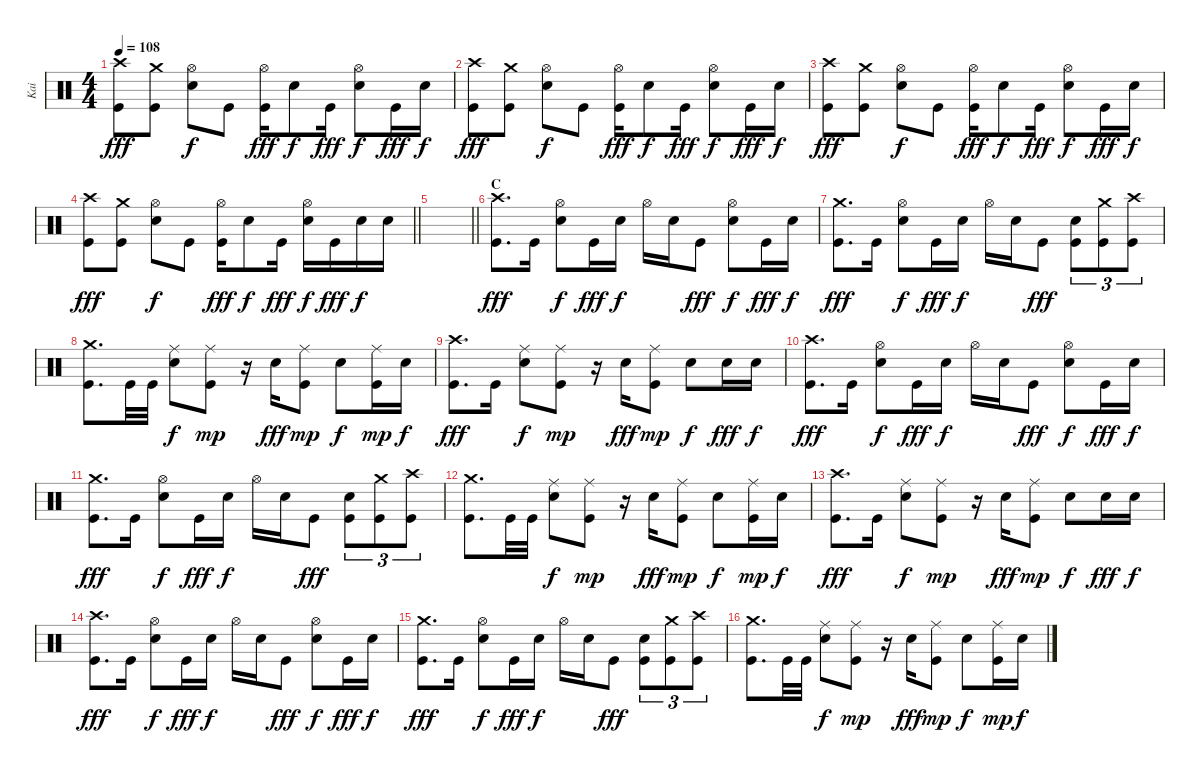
\track ("Kai" "Kai") {instrument percussion}
\staff {score}
\articulation defaults
\ts (4 4)
\tempo 108
\clef neutral
\ks c
("Kick (hit)" "Crash high (hit)").8{dy fff} ("Kick (hit)" "Crash medium (hit)").8 ("Snare (hit) 2" "Hi-Hat (open)").8{dy f} "Kick (hit)".8 ("Kick (hit)" "Hi-Hat (open)").16{dy fff} "Snare (hit) 2".8{dy f} "Kick (hit)".16{dy fff} ("Snare (hit) 2" "Hi-Hat (open)").8{dy f} "Kick (hit)".16{dy fff} "Snare (hit) 2".16{dy f} |
("Kick (hit)" "Crash high (hit)").8{dy fff} ("Kick (hit)" "Crash medium (hit)").8 ("Snare (hit) 2" "Hi-Hat (open)").8{dy f} "Kick (hit)".8 ("Kick (hit)" "Hi-Hat (open)").16{dy fff} "Snare (hit) 2".8{dy f} "Kick (hit)".16{dy fff} ("Snare (hit) 2" "Hi-Hat (open)").8{dy f} "Kick (hit)".16{dy fff} "Snare (hit) 2".16{dy f} |
("Kick (hit)" "Crash high (hit)").8{dy fff} ("Kick (hit)" "Crash medium (hit)").8 ("Snare (hit) 2" "Hi-Hat (open)").8{dy f} "Kick (hit)".8 ("Kick (hit)" "Hi-Hat (open)").16{dy fff} "Snare (hit) 2".8{dy f} "Kick (hit)".16{dy fff} ("Snare (hit) 2" "Hi-Hat (open)").8{dy f} "Kick (hit)".16{dy fff} "Snare (hit) 2".16{dy f} |
\barLineRight lightlight
("Kick (hit)" "Crash high (hit)").8{dy fff} ("Kick (hit)" "Crash medium (hit)").8 ("Snare (hit) 2" "Hi-Hat (open)").8{dy f} "Kick (hit)".8 ("Kick (hit)" "Hi-Hat (open)").16{dy fff} "Snare (hit) 2".8{dy f} "Kick (hit)".16{dy fff} ("Snare (hit) 2" "Hi-Hat (open)").16{dy f} "Kick (hit)".16{dy fff} "Snare (hit) 2".16{dy f} "Snare (hit) 2".16 |
\section ("" "")
\barLineRight lightlight
|
\section ("" "C")
("Crash high (hit)" "Kick (hit)").8{d dy fff} "Kick (hit)".16 ("Snare (hit) 2" "Hi-Hat (open)").8{dy f} "Kick (hit)".16{dy fff} "Snare (hit) 2".16{dy f} "Hi-Hat (open)".16 "Snare (hit) 2".16 "Kick (hit)".8{dy fff} ("Snare (hit) 2" "Hi-Hat (open)").8{dy f} "Kick (hit)".16{dy fff} "Snare (hit) 2".16{dy f} |
("Crash medium (hit)" "Kick (hit)").8{d dy fff} "Kick (hit)".16 ("Snare (hit) 2" "Hi-Hat (open)").8{dy f} "Kick (hit)".16{dy fff} "Snare (hit) 2".16{dy f} "Hi-Hat (open)".16 "Snare (hit) 2".16 "Kick (hit)".8{dy fff} ("Kick (hit)" "Snare (hit) 2").8{tu (3 2)} ("Kick (hit)" "Crash medium (hit)").8{tu (3 2)} ("Kick (hit)" "Crash high (hit)").8{tu (3 2)} |
("Crash medium (hit)" "Kick (hit)").8{d} "Kick (hit)".32 "Kick (hit)".32 ("Snare (hit) 2" "Ride (middle)").8{dy f} ("Kick (hit)" "Ride (middle)").8{dy mp} r.16 "Snare (hit) 2".16{dy fff} ("Kick (hit)" "Ride (middle)").8{dy mp} "Snare (hit) 2".8{dy f} ("Kick (hit)" "Ride (middle)").16{dy mp} "Snare (hit) 2".16{dy f} |
("Crash high (hit)" "Kick (hit)").8{d dy fff} "Kick (hit)".16 ("Snare (hit) 2" "Ride (middle)").8{dy f} ("Kick (hit)" "Ride (middle)").8{dy mp} r.16 "Snare (hit) 2".16{dy fff} ("Kick (hit)" "Ride (middle)").8{dy mp} "Snare (hit) 2".8{dy f} "Snare (hit) 2".16{dy fff} "Snare (hit) 2".16{dy f} |
("Crash high (hit)" "Kick (hit)").8{d dy fff} "Kick (hit)".16 ("Snare (hit) 2" "Hi-Hat (open)").8{dy f} "Kick (hit)".16{dy fff} "Snare (hit) 2".16{dy f} "Hi-Hat (open)".16 "Snare (hit) 2".16 "Kick (hit)".8{dy fff} ("Snare (hit) 2" "Hi-Hat (open)").8{dy f} "Kick (hit)".16{dy fff} "Snare (hit) 2".16{dy f} |
("Crash medium (hit)" "Kick (hit)").8{d dy fff} "Kick (hit)".16 ("Snare (hit) 2" "Hi-Hat (open)").8{dy f} "Kick (hit)".16{dy fff} "Snare (hit) 2".16{dy f} "Hi-Hat (open)".16 "Snare (hit) 2".16 "Kick (hit)".8{dy fff} ("Kick (hit)" "Snare (hit) 2").8{tu (3 2)} ("Kick (hit)" "Crash medium (hit)").8{tu (3 2)} ("Kick (hit)" "Crash high (hit)").8{tu (3 2)} |
("Crash medium (hit)" "Kick (hit)").8{d} "Kick (hit)".32 "Kick (hit)".32 ("Snare (hit) 2" "Ride (middle)").8{dy f} ("Kick (hit)" "Ride (middle)").8{dy mp} r.16 "Snare (hit) 2".16{dy fff} ("Kick (hit)" "Ride (middle)").8{dy mp} "Snare (hit) 2".8{dy f} ("Kick (hit)" "Ride (middle)").16{dy mp} "Snare (hit) 2".16{dy f} |
("Crash high (hit)" "Kick (hit)").8{d dy fff} "Kick (hit)".16 ("Snare (hit) 2" "Ride (middle)").8{dy f} ("Kick (hit)" "Ride (middle)").8{dy mp} r.16 "Snare (hit) 2".16{dy fff} ("Kick (hit)" "Ride (middle)").8{dy mp} "Snare (hit) 2".8{dy f} "Snare (hit) 2".16{dy fff} "Snare (hit) 2".16{dy f} |
("Crash high (hit)" "Kick (hit)").8{d dy fff} "Kick (hit)".16 ("Snare (hit) 2" "Hi-Hat (open)").8{dy f} "Kick (hit)".16{dy fff} "Snare (hit) 2".16{dy f} "Hi-Hat (open)".16 "Snare (hit) 2".16 "Kick (hit)".8{dy fff} ("Snare (hit) 2" "Hi-Hat (open)").8{dy f} "Kick (hit)".16{dy fff} "Snare (hit) 2".16{dy f} |
("Crash medium (hit)" "Kick (hit)").8{d dy fff} "Kick (hit)".16 ("Snare (hit) 2" "Hi-Hat (open)").8{dy f} "Kick (hit)".16{dy fff} "Snare (hit) 2".16{dy f} "Hi-Hat (open)".16 "Snare (hit) 2".16 "Kick (hit)".8{dy fff} ("Kick (hit)" "Snare (hit) 2").8{tu (3 2)} ("Kick (hit)" "Crash medium (hit)").8{tu (3 2)} ("Kick (hit)" "Crash high (hit)").8{tu (3 2)} |
("Crash medium (hit)" "Kick (hit)").8{d} "Kick (hit)".32 "Kick (hit)".32 ("Snare (hit) 2" "Ride (middle)").8{dy f} ("Kick (hit)" "Ride (middle)").8{dy mp} r.16 "Snare (hit) 2".16{dy fff} ("Kick (hit)" "Ride (middle)").8{dy mp} "Snare (hit) 2".8{dy f} ("Kick (hit)" "Ride (middle)").16{dy mp} "Snare (hit) 2".16{dy f}
